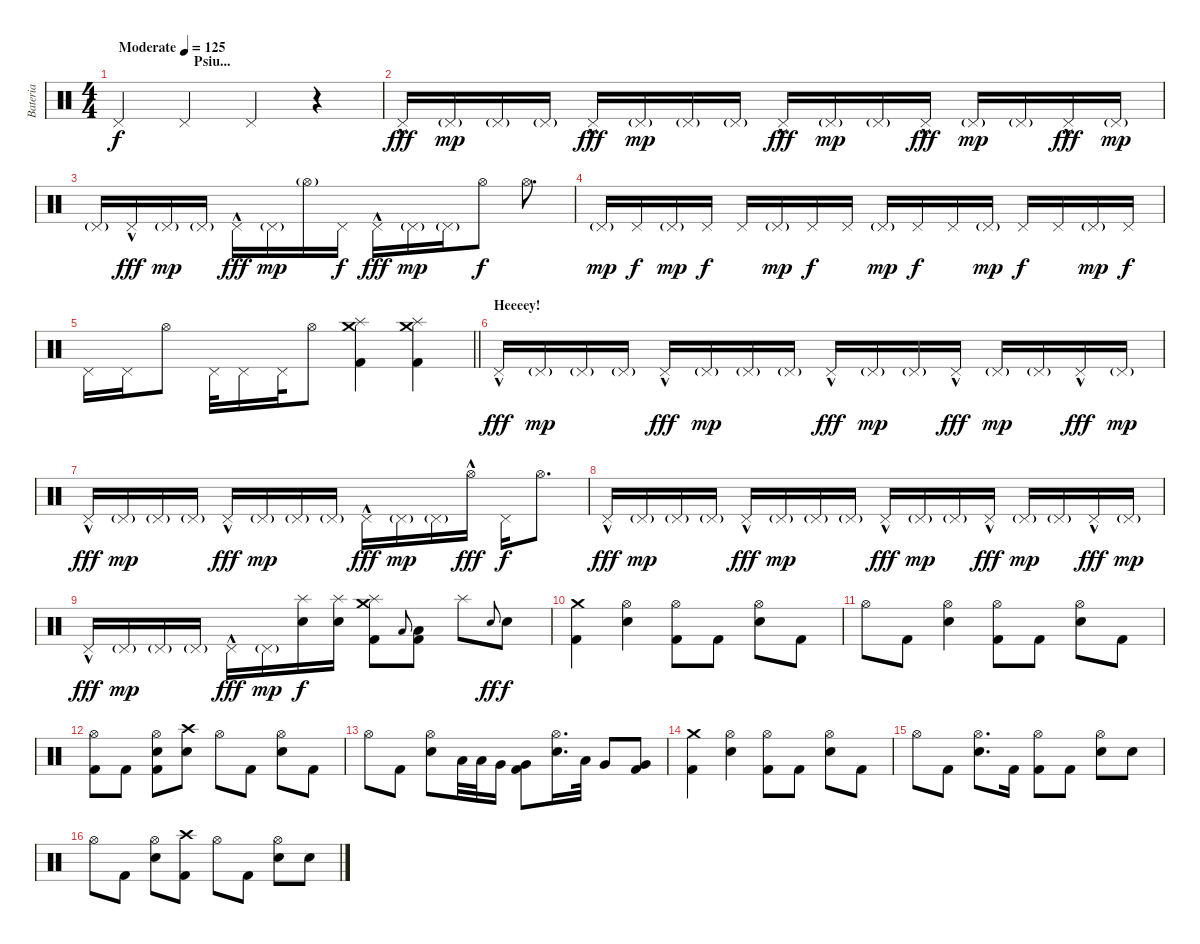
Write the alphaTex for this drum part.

\track ("Bateria" "Bateria") {instrument percussion}
\staff {score}
\articulation defaults
\ts (4 4)
\section ("" "                       Psiu...")
\tempo (125 "Moderate")
\clef neutral
\ks c "Pedal Hi-Hat (hit)".4{dy f} "Pedal Hi-Hat (hit)".4 "Pedal Hi-Hat (hit)".4
r.4 |
"Pedal Hi-Hat (hit)"{hac}.16{dy fff} "Pedal Hi-Hat (hit)"{g}.16{dy mp} "Pedal Hi-Hat (hit)"{g}.16 "Pedal Hi-Hat (hit)"{g}.16 "Pedal Hi-Hat (hit)"{hac}.16{dy fff} "Pedal Hi-Hat (hit)"{g}.16{dy mp} "Pedal Hi-Hat (hit)"{g}.16 "Pedal Hi-Hat (hit)"{g}.16 "Pedal Hi-Hat (hit)"{hac}.16{dy fff} "Pedal Hi-Hat (hit)"{g}.16{dy mp} "Pedal Hi-Hat (hit)"{g}.16 "Pedal Hi-Hat (hit)"{hac}.16{dy fff} "Pedal Hi-Hat (hit)"{g}.16{dy mp} "Pedal Hi-Hat (hit)"{g}.16 "Pedal Hi-Hat (hit)"{hac}.16{dy fff} "Pedal Hi-Hat (hit)"{g}.16{dy mp} |
"Pedal Hi-Hat (hit)"{g}.16 "Pedal Hi-Hat (hit)"{hac}.16{dy fff} "Pedal Hi-Hat (hit)"{g}.16{dy mp} "Pedal Hi-Hat (hit)"{g}.16 "Pedal Hi-Hat (hit)"{hac}.16{dy fff} "Pedal Hi-Hat (hit)"{g}.16{dy mp} "Hi-Hat (open)"{g}.16 "Pedal Hi-Hat (hit)".16{dy f} "Pedal Hi-Hat (hit)"{hac}.16{dy fff} "Pedal Hi-Hat (hit)"{g}.16{dy mp} "Pedal Hi-Hat (hit)"{g}.16 "Hi-Hat (open)".8{dy f} "Hi-Hat (open)".8{d} |
"Pedal Hi-Hat (hit)"{g}.16{dy mp} "Pedal Hi-Hat (hit)".16{dy f} "Pedal Hi-Hat (hit)"{g}.16{dy mp} "Pedal Hi-Hat (hit)".16{dy f} "Pedal Hi-Hat (hit)".16 "Pedal Hi-Hat (hit)"{g}.16{dy mp} "Pedal Hi-Hat (hit)".16{dy f} "Pedal Hi-Hat (hit)".16 "Pedal Hi-Hat (hit)"{g}.16{dy mp} "Pedal Hi-Hat (hit)".16{dy f} "Pedal Hi-Hat (hit)".16 "Pedal Hi-Hat (hit)"{g}.16{dy mp} "Pedal Hi-Hat (hit)".16{dy f} "Pedal Hi-Hat (hit)".16 "Pedal Hi-Hat (hit)"{g}.16{dy mp} "Pedal Hi-Hat (hit)".16{dy f} |
\barLineRight lightlight "Pedal Hi-Hat (hit)".16 "Pedal Hi-Hat (hit)".16 "Hi-Hat (open)".8 "Pedal Hi-Hat (hit)".32 "Pedal Hi-Hat (hit)".16 "Pedal Hi-Hat (hit)".32 "Hi-Hat (open)".8
("Crash medium (hit)" "Splash (hit)" "Kick (hit) 2").4 ("Crash medium (hit)" "Splash (hit)" "Kick (hit) 2").4 |
\section ("" "Heeeey!")
"Pedal Hi-Hat (hit)"{hac}.16{dy fff} "Pedal Hi-Hat (hit)"{g}.16{dy mp} "Pedal Hi-Hat (hit)"{g}.16 "Pedal Hi-Hat (hit)"{g}.16 "Pedal Hi-Hat (hit)"{hac}.16{dy fff} "Pedal Hi-Hat (hit)"{g}.16{dy mp} "Pedal Hi-Hat (hit)"{g}.16 "Pedal Hi-Hat (hit)"{g}.16 "Pedal Hi-Hat (hit)"{hac}.16{dy fff} "Pedal Hi-Hat (hit)"{g}.16{dy mp} "Pedal Hi-Hat (hit)"{g}.16 "Pedal Hi-Hat (hit)"{hac}.16{dy fff} "Pedal Hi-Hat (hit)"{g}.16{dy mp} "Pedal Hi-Hat (hit)"{g}.16 "Pedal Hi-Hat (hit)"{hac}.16{dy fff} "Pedal Hi-Hat (hit)"{g}.16{dy mp} |
"Pedal Hi-Hat (hit)"{hac}.16{dy fff} "Pedal Hi-Hat (hit)"{g}.16{dy mp} "Pedal Hi-Hat (hit)"{g}.16 "Pedal Hi-Hat (hit)"{g}.16 "Pedal Hi-Hat (hit)"{hac}.16{dy fff} "Pedal Hi-Hat (hit)"{g}.16{dy mp} "Pedal Hi-Hat (hit)"{g}.16 "Pedal Hi-Hat (hit)"{g}.16 "Pedal Hi-Hat (hit)"{hac}.16{dy fff} "Pedal Hi-Hat (hit)"{g}.16{dy mp} "Pedal Hi-Hat (hit)"{g}.16 "Hi-Hat (open)"{hac}.16{dy fff} "Pedal Hi-Hat (hit)".16{dy f} "Hi-Hat (open)".8{d} |
"Pedal Hi-Hat (hit)"{hac}.16{dy fff} "Pedal Hi-Hat (hit)"{g}.16{dy mp} "Pedal Hi-Hat (hit)"{g}.16 "Pedal Hi-Hat (hit)"{g}.16 "Pedal Hi-Hat (hit)"{hac}.16{dy fff} "Pedal Hi-Hat (hit)"{g}.16{dy mp} "Pedal Hi-Hat (hit)"{g}.16 "Pedal Hi-Hat (hit)"{g}.16 "Pedal Hi-Hat (hit)"{hac}.16{dy fff} "Pedal Hi-Hat (hit)"{g}.16{dy mp} "Pedal Hi-Hat (hit)"{g}.16 "Pedal Hi-Hat (hit)"{hac}.16{dy fff} "Pedal Hi-Hat (hit)"{g}.16{dy mp} "Pedal Hi-Hat (hit)"{g}.16 "Pedal Hi-Hat (hit)"{hac}.16{dy fff} "Pedal Hi-Hat (hit)"{g}.16{dy mp} |
"Pedal Hi-Hat (hit)"{hac}.16{dy fff} "Pedal Hi-Hat (hit)"{g}.16{dy mp} "Pedal Hi-Hat (hit)"{g}.16 "Pedal Hi-Hat (hit)"{g}.16 "Pedal Hi-Hat (hit)"{hac}.16{dy fff} "Pedal Hi-Hat (hit)"{g}.16{dy mp} ("Splash (hit)" "Electric Snare (hit)").16{dy f} ("Splash (hit)" "Electric Snare (hit)").16 ("Crash medium (hit)" "Splash (hit)" "Kick (hit) 2").8 "Low Tom (hit)".8{gr onbeat} ("Low Tom (hit)" "Kick (hit) 2").8 "Splash (hit)".8 "Electric Snare (hit)".8{gr onbeat dy ff} "Electric Snare (hit)".8{dy f} |
("Crash medium (hit)" "Kick (hit) 2").4 ("Hi-Hat (open)" "Electric Snare (hit)").4 ("Hi-Hat (open)" "Kick (hit) 2").8 "Kick (hit) 2".8 ("Hi-Hat (open)" "Electric Snare (hit)").8 "Kick (hit) 2".8 |
"Hi-Hat (open)".8 "Kick (hit) 2".8 ("Hi-Hat (open)" "Electric Snare (hit)").4 ("Hi-Hat (open)" "Kick (hit) 2").8 "Kick (hit) 2".8 ("Hi-Hat (open)" "Electric Snare (hit)").8 "Kick (hit) 2".8 |
("Hi-Hat (open)" "Kick (hit) 2").8 "Kick (hit) 2".8 ("Hi-Hat (open)" "Electric Snare (hit)" "Kick (hit) 2").8 ("Crash high (hit)" "Electric Snare (hit)").8 "Hi-Hat (open)".8 "Kick (hit) 2".8 ("Hi-Hat (open)" "Electric Snare (hit)").8 "Kick (hit) 2".8 |
"Hi-Hat (open)".8 "Kick (hit) 2".8 ("Hi-Hat (open)" "Electric Snare (hit)").8 "Low Tom (hit)".32 "Low Tom (hit)".32 "Very Low Tom (hit)".16 ("Very Low Tom (hit)" "Kick (hit) 2").8 ("Hi-Hat (open)" "Electric Snare (hit)").16{d} "Low Tom (hit)".32 "Very Low Tom (hit)".8 ("Very Low Tom (hit)" "Kick (hit) 2").8 |
("Crash medium (hit)" "Kick (hit) 2").4 ("Hi-Hat (open)" "Electric Snare (hit)").4 ("Hi-Hat (open)" "Kick (hit) 2").8 "Kick (hit) 2".8 ("Hi-Hat (open)" "Electric Snare (hit)").8 "Kick (hit) 2".8 |
"Hi-Hat (open)".8 "Kick (hit) 2".8 ("Hi-Hat (open)" "Electric Snare (hit)").8{d} "Kick (hit) 2".16 ("Hi-Hat (open)" "Kick (hit) 2").8 "Kick (hit) 2".8 ("Hi-Hat (open)" "Electric Snare (hit)").8 "Electric Snare (hit)".8 |
"Hi-Hat (open)".8 "Kick (hit) 2".8 ("Hi-Hat (open)" "Electric Snare (hit)").8 ("Crash high (hit)" "Kick (hit) 2").8 "Hi-Hat (open)".8 "Kick (hit) 2".8 ("Hi-Hat (open)" "Electric Snare (hit)").8 "Electric Snare (hit)".8
